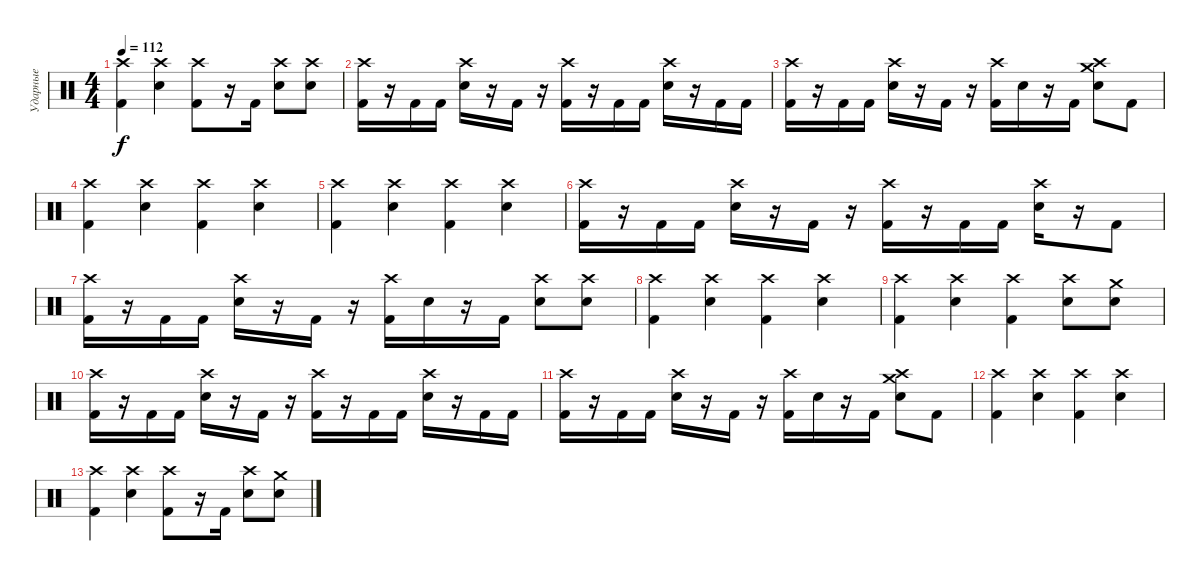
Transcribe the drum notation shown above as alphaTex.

\track ("Ударные" "Ударные") {instrument percussion}
\staff {score}
\articulation defaults
\ts (4 4)
\tempo 112
\clef neutral
\ks c
("Crash high (hit)" "Kick (hit) 2").4{dy f} ("Crash high (hit)" "Snare (hit) 2").4 ("Crash high (hit)" "Kick (hit) 2").8 r.16 "Kick (hit) 2".16 ("Crash high (hit)" "Snare (hit) 2").8 ("Crash high (hit)" "Snare (hit) 2").8 |
("Crash high (hit)" "Kick (hit) 2").16 r.16 "Kick (hit) 2".16 "Kick (hit) 2".16 ("Crash high (hit)" "Snare (hit) 2").16 r.16 "Kick (hit) 2".16 r.16 ("Crash high (hit)" "Kick (hit) 2").16 r.16 "Kick (hit) 2".16 "Kick (hit) 2".16 ("Crash high (hit)" "Snare (hit) 2").16 r.16 "Kick (hit) 2".16 "Kick (hit) 2".16 |
("Crash high (hit)" "Kick (hit) 2").16 r.16 "Kick (hit) 2".16 "Kick (hit) 2".16 ("Crash high (hit)" "Snare (hit) 2").16 r.16 "Kick (hit) 2".16 r.16 ("Crash high (hit)" "Kick (hit) 2").16 "Snare (hit) 2".16 r.16 "Kick (hit) 2".16 ("Crash high (hit)" "Crash medium (hit)" "Snare (hit) 2").8 "Kick (hit) 2".8 |
("Crash high (hit)" "Kick (hit) 2").4 ("Crash high (hit)" "Snare (hit) 2").4 ("Crash high (hit)" "Kick (hit) 2").4 ("Crash high (hit)" "Snare (hit) 2").4 |
("Crash high (hit)" "Kick (hit) 2").4 ("Crash high (hit)" "Snare (hit) 2").4 ("Crash high (hit)" "Kick (hit) 2").4 ("Crash high (hit)" "Snare (hit) 2").4 |
("Crash high (hit)" "Kick (hit) 2").16 r.16 "Kick (hit) 2".16 "Kick (hit) 2".16 ("Crash high (hit)" "Snare (hit) 2").16 r.16 "Kick (hit) 2".16 r.16 ("Crash high (hit)" "Kick (hit) 2").16 r.16 "Kick (hit) 2".16 "Kick (hit) 2".16 ("Crash high (hit)" "Snare (hit) 2").16 r.16 "Kick (hit) 2".8 |
("Crash high (hit)" "Kick (hit) 2").16 r.16 "Kick (hit) 2".16 "Kick (hit) 2".16 ("Crash high (hit)" "Snare (hit) 2").16 r.16 "Kick (hit) 2".16 r.16 ("Crash high (hit)" "Kick (hit) 2").16 "Snare (hit) 2".16 r.16 "Kick (hit) 2".16 ("Crash high (hit)" "Snare (hit) 2").8 ("Crash high (hit)" "Snare (hit) 2").8 |
("Crash high (hit)" "Kick (hit) 2").4 ("Crash high (hit)" "Snare (hit) 2").4 ("Crash high (hit)" "Kick (hit) 2").4 ("Crash high (hit)" "Snare (hit) 2").4 |
("Crash high (hit)" "Kick (hit) 2").4 ("Crash high (hit)" "Snare (hit) 2").4 ("Crash high (hit)" "Kick (hit) 2").4 ("Crash high (hit)" "Snare (hit) 2").8 ("Crash medium (hit)" "Snare (hit) 2").8 |
("Crash high (hit)" "Kick (hit) 2").16 r.16 "Kick (hit) 2".16 "Kick (hit) 2".16 ("Crash high (hit)" "Snare (hit) 2").16 r.16 "Kick (hit) 2".16 r.16 ("Crash high (hit)" "Kick (hit) 2").16 r.16 "Kick (hit) 2".16 "Kick (hit) 2".16 ("Crash high (hit)" "Snare (hit) 2").16 r.16 "Kick (hit) 2".16 "Kick (hit) 2".16 |
("Crash high (hit)" "Kick (hit) 2").16 r.16 "Kick (hit) 2".16 "Kick (hit) 2".16 ("Crash high (hit)" "Snare (hit) 2").16 r.16 "Kick (hit) 2".16 r.16 ("Crash high (hit)" "Kick (hit) 2").16 "Snare (hit) 2".16 r.16 "Kick (hit) 2".16 ("Crash high (hit)" "Crash medium (hit)" "Snare (hit) 2").8 "Kick (hit) 2".8 |
("Crash high (hit)" "Kick (hit) 2").4 ("Crash high (hit)" "Snare (hit) 2").4 ("Crash high (hit)" "Kick (hit) 2").4 ("Crash high (hit)" "Snare (hit) 2").4 |
("Crash high (hit)" "Kick (hit) 2").4 ("Crash high (hit)" "Snare (hit) 2").4 ("Crash high (hit)" "Kick (hit) 2").8 r.16 "Kick (hit) 2".16 ("Crash high (hit)" "Snare (hit) 2").8 ("Crash medium (hit)" "Snare (hit) 2").8
